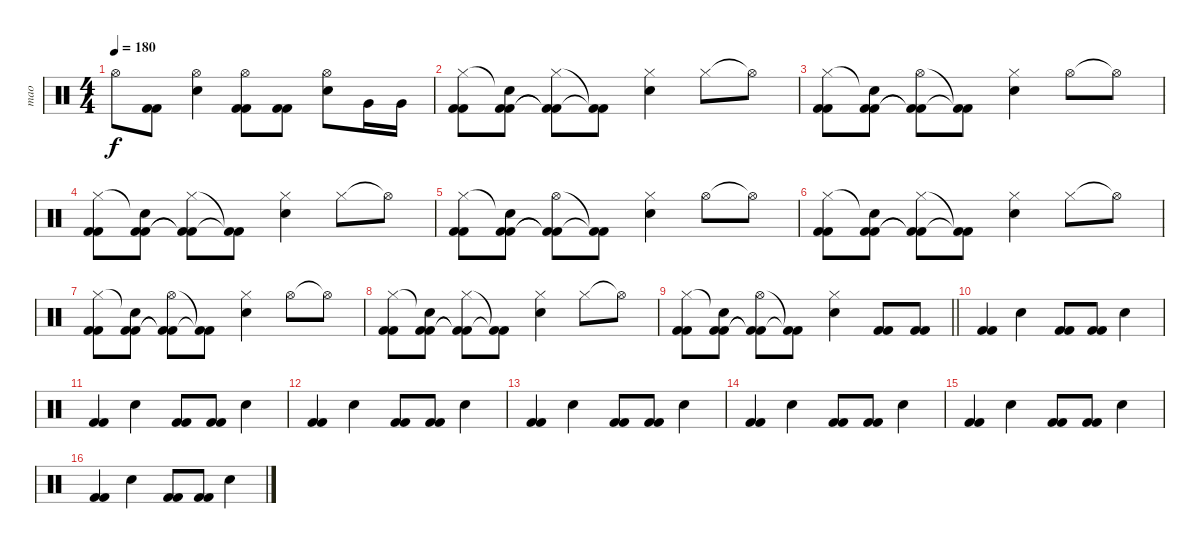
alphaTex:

\track ("mao" "mao") {instrument percussion}
\staff {score}
\articulation defaults
\ts (4 4)
\tempo 180
\clef neutral
\ks c "Hi-Hat (open)".8{dy f}
("Kick (hit) 2" "Kick (hit) 2").8 ("Hi-Hat (open)" "Electric Snare (hit)").4 ("Hi-Hat (open)" "Kick (hit) 2" "Kick (hit) 2").8 ("Kick (hit) 2" "Kick (hit) 2").8 ("Hi-Hat (open)" "Electric Snare (hit)").8 "Very Low Tom (hit)".16 "Very Low Tom (hit)".16 |
("Hi-Hat (closed)" "Kick (hit) 2" "Kick (hit) 2").8 ("Snare (hit)"{t} "Kick (hit) 2" "Kick (hit) 2").8 ("Hi-Hat (closed)" "Kick (hit) 2"{t} "Kick (hit) 2"{t}).8 ("Kick (hit) 2"{t} "Kick (hit) 2"{t}).8 ("Hi-Hat (closed)" "Electric Snare (hit)").4 "Hi-Hat (closed)".8 "Hi-Hat (open)"{t}.8 |
("Hi-Hat (closed)" "Kick (hit) 2" "Kick (hit) 2").8 ("Snare (hit)"{t} "Kick (hit) 2" "Kick (hit) 2").8 ("Hi-Hat (open)" "Kick (hit) 2"{t} "Kick (hit) 2"{t}).8 ("Kick (hit) 2"{t} "Kick (hit) 2"{t}).8 ("Hi-Hat (closed)" "Electric Snare (hit)").4 "Hi-Hat (open)".8 "Hi-Hat (open)"{t}.8 |
("Hi-Hat (closed)" "Kick (hit) 2" "Kick (hit) 2").8 ("Snare (hit)"{t} "Kick (hit) 2" "Kick (hit) 2").8 ("Hi-Hat (closed)" "Kick (hit) 2"{t} "Kick (hit) 2"{t}).8 ("Kick (hit) 2"{t} "Kick (hit) 2"{t}).8 ("Hi-Hat (closed)" "Electric Snare (hit)").4 "Hi-Hat (closed)".8 "Hi-Hat (open)"{t}.8 |
("Hi-Hat (closed)" "Kick (hit) 2" "Kick (hit) 2").8 ("Snare (hit)"{t} "Kick (hit) 2" "Kick (hit) 2").8 ("Hi-Hat (open)" "Kick (hit) 2"{t} "Kick (hit) 2"{t}).8 ("Kick (hit) 2"{t} "Kick (hit) 2"{t}).8 ("Hi-Hat (closed)" "Electric Snare (hit)").4 "Hi-Hat (open)".8 "Hi-Hat (open)"{t}.8 |
("Hi-Hat (closed)" "Kick (hit) 2" "Kick (hit) 2").8 ("Snare (hit)"{t} "Kick (hit) 2" "Kick (hit) 2").8 ("Hi-Hat (closed)" "Kick (hit) 2"{t} "Kick (hit) 2"{t}).8 ("Kick (hit) 2"{t} "Kick (hit) 2"{t}).8 ("Hi-Hat (closed)" "Electric Snare (hit)").4 "Hi-Hat (closed)".8 "Hi-Hat (open)"{t}.8 |
("Hi-Hat (closed)" "Kick (hit) 2" "Kick (hit) 2").8 ("Snare (hit)"{t} "Kick (hit) 2" "Kick (hit) 2").8 ("Hi-Hat (open)" "Kick (hit) 2"{t} "Kick (hit) 2"{t}).8 ("Kick (hit) 2"{t} "Kick (hit) 2"{t}).8 ("Hi-Hat (closed)" "Electric Snare (hit)").4 "Hi-Hat (open)".8 "Hi-Hat (open)"{t}.8 |
("Hi-Hat (closed)" "Kick (hit) 2" "Kick (hit) 2").8 ("Snare (hit)"{t} "Kick (hit) 2" "Kick (hit) 2").8 ("Hi-Hat (closed)" "Kick (hit) 2"{t} "Kick (hit) 2"{t}).8 ("Kick (hit) 2"{t} "Kick (hit) 2"{t}).8 ("Hi-Hat (closed)" "Electric Snare (hit)").4 "Hi-Hat (closed)".8 "Hi-Hat (open)"{t}.8 |
\barLineRight lightlight
("Hi-Hat (closed)" "Kick (hit) 2" "Kick (hit) 2").8 ("Snare (hit)"{t} "Kick (hit) 2" "Kick (hit) 2").8 ("Hi-Hat (open)" "Kick (hit) 2"{t} "Kick (hit) 2"{t}).8 ("Kick (hit) 2"{t} "Kick (hit) 2"{t}).8 ("Hi-Hat (closed)" "Electric Snare (hit)").4 ("Kick (hit) 2" "Kick (hit) 2").8 ("Kick (hit) 2" "Kick (hit) 2").8 |
("Kick (hit) 2" "Kick (hit) 2").4 "Electric Snare (hit)".4 ("Kick (hit) 2" "Kick (hit) 2").8 ("Kick (hit) 2" "Kick (hit) 2").8 "Electric Snare (hit)".4 |
("Kick (hit) 2" "Kick (hit) 2").4 "Electric Snare (hit)".4 ("Kick (hit) 2" "Kick (hit) 2").8 ("Kick (hit) 2" "Kick (hit) 2").8 "Electric Snare (hit)".4 |
("Kick (hit) 2" "Kick (hit) 2").4 "Electric Snare (hit)".4 ("Kick (hit) 2" "Kick (hit) 2").8 ("Kick (hit) 2" "Kick (hit) 2").8 "Electric Snare (hit)".4 |
("Kick (hit) 2" "Kick (hit) 2").4 "Electric Snare (hit)".4 ("Kick (hit) 2" "Kick (hit) 2").8 ("Kick (hit) 2" "Kick (hit) 2").8 "Electric Snare (hit)".4 |
("Kick (hit) 2" "Kick (hit) 2").4 "Electric Snare (hit)".4 ("Kick (hit) 2" "Kick (hit) 2").8 ("Kick (hit) 2" "Kick (hit) 2").8 "Electric Snare (hit)".4 |
("Kick (hit) 2" "Kick (hit) 2").4 "Electric Snare (hit)".4 ("Kick (hit) 2" "Kick (hit) 2").8 ("Kick (hit) 2" "Kick (hit) 2").8 "Electric Snare (hit)".4 |
("Kick (hit) 2" "Kick (hit) 2").4 "Electric Snare (hit)".4 ("Kick (hit) 2" "Kick (hit) 2").8 ("Kick (hit) 2" "Kick (hit) 2").8 "Electric Snare (hit)".4
